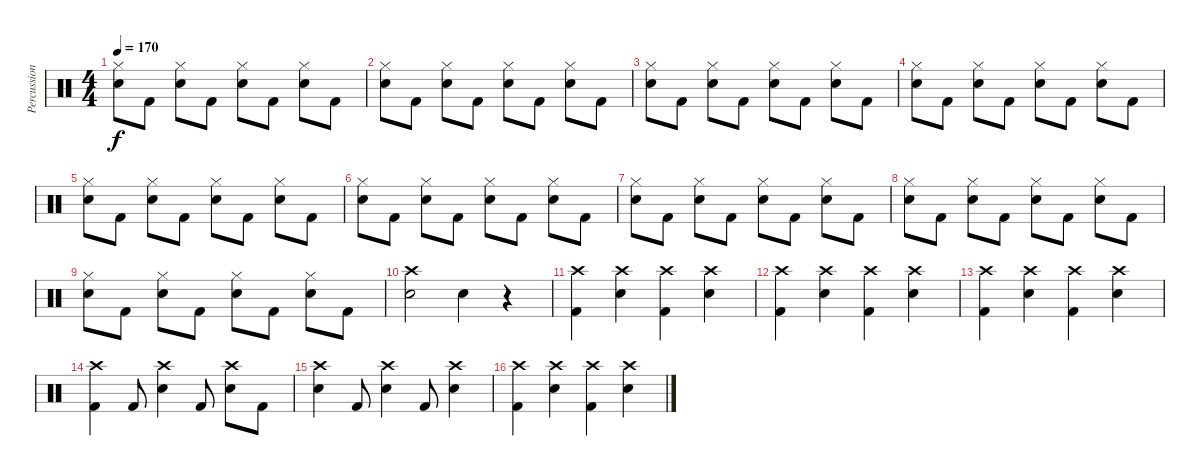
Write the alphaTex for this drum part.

\track ("Percussion" "Percussion") {instrument percussion}
\staff {score}
\articulation defaults
\ts (4 4)
\tempo 170
\clef neutral
\ks c
("Hi-Hat (closed)" "Electric Snare (hit)").8{dy f} "Kick (hit) 2".8 ("Hi-Hat (closed)" "Electric Snare (hit)").8 "Kick (hit) 2".8 ("Hi-Hat (closed)" "Electric Snare (hit)").8 "Kick (hit) 2".8 ("Hi-Hat (closed)" "Electric Snare (hit)").8 "Kick (hit) 2".8 |
("Hi-Hat (closed)" "Electric Snare (hit)").8 "Kick (hit) 2".8 ("Hi-Hat (closed)" "Electric Snare (hit)").8 "Kick (hit) 2".8 ("Hi-Hat (closed)" "Electric Snare (hit)").8 "Kick (hit) 2".8 ("Hi-Hat (closed)" "Electric Snare (hit)").8 "Kick (hit) 2".8 |
("Hi-Hat (closed)" "Electric Snare (hit)").8 "Kick (hit) 2".8 ("Hi-Hat (closed)" "Electric Snare (hit)").8 "Kick (hit) 2".8 ("Hi-Hat (closed)" "Electric Snare (hit)").8 "Kick (hit) 2".8 ("Hi-Hat (closed)" "Electric Snare (hit)").8 "Kick (hit) 2".8 |
("Hi-Hat (closed)" "Electric Snare (hit)").8 "Kick (hit) 2".8 ("Hi-Hat (closed)" "Electric Snare (hit)").8 "Kick (hit) 2".8 ("Hi-Hat (closed)" "Electric Snare (hit)").8 "Kick (hit) 2".8 ("Hi-Hat (closed)" "Electric Snare (hit)").8 "Kick (hit) 2".8 |
("Hi-Hat (closed)" "Electric Snare (hit)").8 "Kick (hit) 2".8 ("Hi-Hat (closed)" "Electric Snare (hit)").8 "Kick (hit) 2".8 ("Hi-Hat (closed)" "Electric Snare (hit)").8 "Kick (hit) 2".8 ("Hi-Hat (closed)" "Electric Snare (hit)").8 "Kick (hit) 2".8 |
("Hi-Hat (closed)" "Electric Snare (hit)").8 "Kick (hit) 2".8 ("Hi-Hat (closed)" "Electric Snare (hit)").8 "Kick (hit) 2".8 ("Hi-Hat (closed)" "Electric Snare (hit)").8 "Kick (hit) 2".8 ("Hi-Hat (closed)" "Electric Snare (hit)").8 "Kick (hit) 2".8 |
("Hi-Hat (closed)" "Electric Snare (hit)").8 "Kick (hit) 2".8 ("Hi-Hat (closed)" "Electric Snare (hit)").8 "Kick (hit) 2".8 ("Hi-Hat (closed)" "Electric Snare (hit)").8 "Kick (hit) 2".8 ("Hi-Hat (closed)" "Electric Snare (hit)").8 "Kick (hit) 2".8 |
("Hi-Hat (closed)" "Electric Snare (hit)").8 "Kick (hit) 2".8 ("Hi-Hat (closed)" "Electric Snare (hit)").8 "Kick (hit) 2".8 ("Hi-Hat (closed)" "Electric Snare (hit)").8 "Kick (hit) 2".8 ("Hi-Hat (closed)" "Electric Snare (hit)").8 "Kick (hit) 2".8 |
("Hi-Hat (closed)" "Electric Snare (hit)").8 "Kick (hit) 2".8 ("Hi-Hat (closed)" "Electric Snare (hit)").8 "Kick (hit) 2".8 ("Hi-Hat (closed)" "Electric Snare (hit)").8 "Kick (hit) 2".8 ("Hi-Hat (closed)" "Electric Snare (hit)").8 "Kick (hit) 2".8 |
("Crash high (hit)" "Electric Snare (hit)").2 "Electric Snare (hit)".4 r.4 |
("Crash high (hit)" "Kick (hit) 2").4 ("Crash high (hit)" "Electric Snare (hit)").4 ("Crash high (hit)" "Kick (hit) 2").4 ("Crash high (hit)" "Electric Snare (hit)").4 |
("Crash high (hit)" "Kick (hit) 2").4 ("Crash high (hit)" "Electric Snare (hit)").4 ("Crash high (hit)" "Kick (hit) 2").4 ("Crash high (hit)" "Electric Snare (hit)").4 |
("Crash high (hit)" "Kick (hit) 2").4 ("Crash high (hit)" "Electric Snare (hit)").4 ("Crash high (hit)" "Kick (hit) 2").4 ("Crash high (hit)" "Electric Snare (hit)").4 |
("Crash high (hit)" "Kick (hit) 2").4 "Kick (hit) 2".8 ("Crash high (hit)" "Electric Snare (hit)").4 "Kick (hit) 2".8 ("Crash high (hit)" "Electric Snare (hit)").8 "Kick (hit) 2".8 |
("Crash high (hit)" "Electric Snare (hit)").4 "Kick (hit) 2".8 ("Crash high (hit)" "Electric Snare (hit)").4 "Kick (hit) 2".8 ("Crash high (hit)" "Electric Snare (hit)").4 |
("Crash high (hit)" "Kick (hit) 2").4 ("Crash high (hit)" "Electric Snare (hit)").4 ("Crash high (hit)" "Kick (hit) 2").4 ("Crash high (hit)" "Electric Snare (hit)").4
